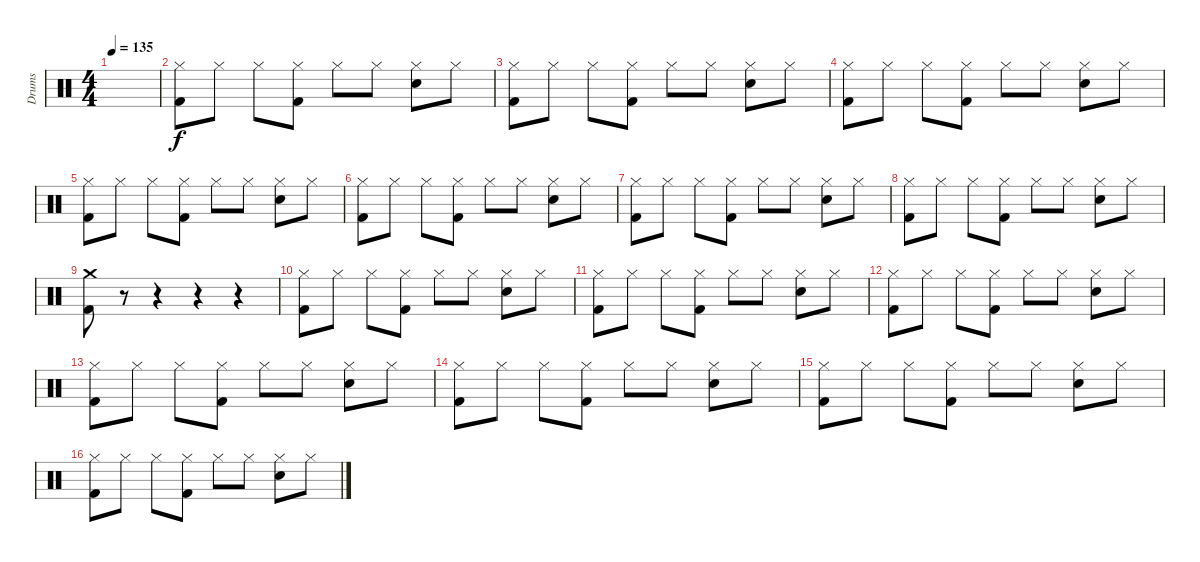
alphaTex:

\track ("Drums" "Drums") {instrument percussion}
\staff {score}
\articulation defaults
\ts (4 4)
\tempo 135
\clef neutral
\ks c
|
("Hi-Hat (closed)" "Kick (hit) 2").8 "Hi-Hat (closed)".8 "Hi-Hat (closed)".8 ("Hi-Hat (closed)" "Kick (hit) 2").8 "Hi-Hat (closed)".8 "Hi-Hat (closed)".8 ("Hi-Hat (closed)" "Electric Snare (hit)").8 "Hi-Hat (closed)".8 |
("Hi-Hat (closed)" "Kick (hit) 2").8 "Hi-Hat (closed)".8 "Hi-Hat (closed)".8 ("Hi-Hat (closed)" "Kick (hit) 2").8 "Hi-Hat (closed)".8 "Hi-Hat (closed)".8 ("Hi-Hat (closed)" "Electric Snare (hit)").8 "Hi-Hat (closed)".8 |
("Hi-Hat (closed)" "Kick (hit) 2").8 "Hi-Hat (closed)".8 "Hi-Hat (closed)".8 ("Hi-Hat (closed)" "Kick (hit) 2").8 "Hi-Hat (closed)".8 "Hi-Hat (closed)".8 ("Hi-Hat (closed)" "Electric Snare (hit)").8 "Hi-Hat (closed)".8 |
("Hi-Hat (closed)" "Kick (hit) 2").8 "Hi-Hat (closed)".8 "Hi-Hat (closed)".8 ("Hi-Hat (closed)" "Kick (hit) 2").8 "Hi-Hat (closed)".8 "Hi-Hat (closed)".8 ("Hi-Hat (closed)" "Electric Snare (hit)").8 "Hi-Hat (closed)".8 |
("Hi-Hat (closed)" "Kick (hit) 2").8 "Hi-Hat (closed)".8 "Hi-Hat (closed)".8 ("Hi-Hat (closed)" "Kick (hit) 2").8 "Hi-Hat (closed)".8 "Hi-Hat (closed)".8 ("Hi-Hat (closed)" "Electric Snare (hit)").8 "Hi-Hat (closed)".8 |
("Hi-Hat (closed)" "Kick (hit) 2").8 "Hi-Hat (closed)".8 "Hi-Hat (closed)".8 ("Hi-Hat (closed)" "Kick (hit) 2").8 "Hi-Hat (closed)".8 "Hi-Hat (closed)".8 ("Hi-Hat (closed)" "Electric Snare (hit)").8 "Hi-Hat (closed)".8 |
("Hi-Hat (closed)" "Kick (hit) 2").8 "Hi-Hat (closed)".8 "Hi-Hat (closed)".8 ("Hi-Hat (closed)" "Kick (hit) 2").8 "Hi-Hat (closed)".8 "Hi-Hat (closed)".8 ("Hi-Hat (closed)" "Electric Snare (hit)").8 "Hi-Hat (closed)".8 |
("Crash medium (hit)" "Kick (hit) 2").8 r.8 r.4 r.4 r.4 |
("Hi-Hat (closed)" "Kick (hit) 2").8 "Hi-Hat (closed)".8 "Hi-Hat (closed)".8 ("Hi-Hat (closed)" "Kick (hit) 2").8 "Hi-Hat (closed)".8 "Hi-Hat (closed)".8 ("Hi-Hat (closed)" "Electric Snare (hit)").8 "Hi-Hat (closed)".8 |
("Hi-Hat (closed)" "Kick (hit) 2").8 "Hi-Hat (closed)".8 "Hi-Hat (closed)".8 ("Hi-Hat (closed)" "Kick (hit) 2").8 "Hi-Hat (closed)".8 "Hi-Hat (closed)".8 ("Hi-Hat (closed)" "Electric Snare (hit)").8 "Hi-Hat (closed)".8 |
("Hi-Hat (closed)" "Kick (hit) 2").8 "Hi-Hat (closed)".8 "Hi-Hat (closed)".8 ("Hi-Hat (closed)" "Kick (hit) 2").8 "Hi-Hat (closed)".8 "Hi-Hat (closed)".8 ("Hi-Hat (closed)" "Electric Snare (hit)").8 "Hi-Hat (closed)".8 |
("Hi-Hat (closed)" "Kick (hit) 2").8 "Hi-Hat (closed)".8 "Hi-Hat (closed)".8 ("Hi-Hat (closed)" "Kick (hit) 2").8 "Hi-Hat (closed)".8 "Hi-Hat (closed)".8 ("Hi-Hat (closed)" "Electric Snare (hit)").8 "Hi-Hat (closed)".8 |
("Hi-Hat (closed)" "Kick (hit) 2").8 "Hi-Hat (closed)".8 "Hi-Hat (closed)".8 ("Hi-Hat (closed)" "Kick (hit) 2").8 "Hi-Hat (closed)".8 "Hi-Hat (closed)".8 ("Hi-Hat (closed)" "Electric Snare (hit)").8 "Hi-Hat (closed)".8 |
("Hi-Hat (closed)" "Kick (hit) 2").8 "Hi-Hat (closed)".8 "Hi-Hat (closed)".8 ("Hi-Hat (closed)" "Kick (hit) 2").8 "Hi-Hat (closed)".8 "Hi-Hat (closed)".8 ("Hi-Hat (closed)" "Electric Snare (hit)").8 "Hi-Hat (closed)".8 |
("Hi-Hat (closed)" "Kick (hit) 2").8 "Hi-Hat (closed)".8 "Hi-Hat (closed)".8 ("Hi-Hat (closed)" "Kick (hit) 2").8 "Hi-Hat (closed)".8 "Hi-Hat (closed)".8 ("Hi-Hat (closed)" "Electric Snare (hit)").8 "Hi-Hat (closed)".8
